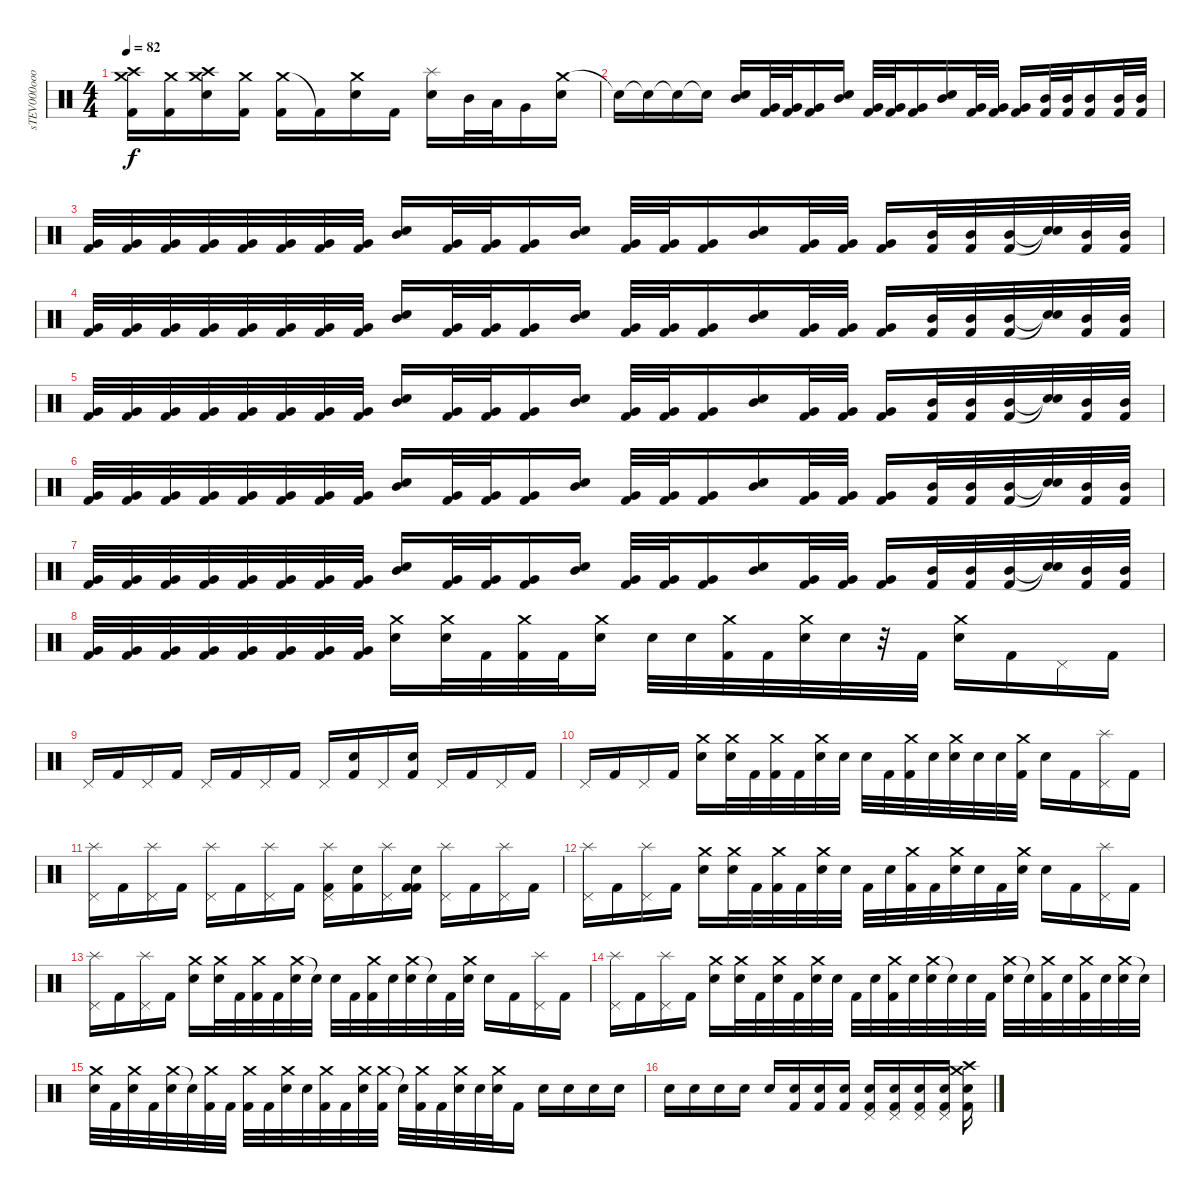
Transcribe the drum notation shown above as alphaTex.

\track ("sTEV000oooooooooOOOO 32" "sTEV000ooo") {instrument percussion}
\staff {score}
\articulation defaults
\ts (4 4)
\tempo 82
\clef neutral
\ks c
("Crash medium (hit)" "Crash high (hit)" "Kick (hit) 2").16{dy f} ("Crash medium (hit)" "Kick (hit) 2").16 ("Crash medium (hit)" "Crash high (hit)" "Electric Snare (hit)").16 ("Crash medium (hit)" "Kick (hit) 2").16 ("Crash medium (hit)" "Kick (hit) 2").16 "Kick (hit) 2"{t}.16 ("Crash medium (hit)" "Electric Snare (hit)").16 "Kick (hit) 2".16 ("Splash (hit)" "Electric Snare (hit)").16 "Mid Tom (hit)".32 "Low Tom (hit)".32 "Very Low Tom (hit)".16 ("Crash medium (hit)" "Electric Snare (hit)").16 |
"Snare (hit)"{t}.16 "Snare (hit)"{t}.16 "Snare (hit)"{t}.16 "Snare (hit)"{t}.16 ("Electric Snare (hit)" "Mid Tom (hit)").16 ("Kick (hit) 2" "Very Low Tom (hit)").32 ("Kick (hit) 2" "Very Low Tom (hit)").32 ("Kick (hit) 2" "Very Low Tom (hit)").16 ("Electric Snare (hit)" "Mid Tom (hit)").16 ("Kick (hit) 2" "Very Low Tom (hit)").32 ("Kick (hit) 2" "Very Low Tom (hit)").32 ("Kick (hit) 2" "Very Low Tom (hit)").16 ("Electric Snare (hit)" "Mid Tom (hit)").16 ("Kick (hit) 2" "Very Low Tom (hit)").32 ("Kick (hit) 2" "Very Low Tom (hit)").32 ("Kick (hit) 2" "Very Low Tom (hit)").16 ("Kick (hit) 2" "Mid Tom (hit)").32 ("Kick (hit) 2" "Mid Tom (hit)").32 ("Kick (hit) 2" "Mid Tom (hit)").16 ("Kick (hit) 2" "Mid Tom (hit)").32 ("Kick (hit) 2" "Mid Tom (hit)").32 |
("Kick (hit) 2" "Very Low Tom (hit)").32 ("Kick (hit) 2" "Very Low Tom (hit)").32 ("Kick (hit) 2" "Very Low Tom (hit)").32 ("Kick (hit) 2" "Very Low Tom (hit)").32 ("Kick (hit) 2" "Very Low Tom (hit)").32 ("Kick (hit) 2" "Very Low Tom (hit)").32 ("Kick (hit) 2" "Very Low Tom (hit)").32 ("Kick (hit) 2" "Very Low Tom (hit)").32 ("Electric Snare (hit)" "Mid Tom (hit)").16 ("Kick (hit) 2" "Very Low Tom (hit)").32 ("Kick (hit) 2" "Very Low Tom (hit)").32 ("Kick (hit) 2" "Very Low Tom (hit)").16 ("Electric Snare (hit)" "Mid Tom (hit)").16 ("Kick (hit) 2" "Very Low Tom (hit)").32 ("Kick (hit) 2" "Very Low Tom (hit)").32 ("Kick (hit) 2" "Very Low Tom (hit)").16 ("Electric Snare (hit)" "Mid Tom (hit)").16 ("Kick (hit) 2" "Very Low Tom (hit)").32 ("Kick (hit) 2" "Very Low Tom (hit)").32 ("Kick (hit) 2" "Very Low Tom (hit)").16 ("Kick (hit) 2" "Mid Tom (hit)").32 ("Kick (hit) 2" "Mid Tom (hit)").32 ("Kick (hit) 2" "Mid Tom (hit)").32 ("Snare (hit)"{t} "Snare (hit)"{t}).32 ("Kick (hit) 2" "Mid Tom (hit)").32 ("Kick (hit) 2" "Mid Tom (hit)").32 |
("Kick (hit) 2" "Very Low Tom (hit)").32 ("Kick (hit) 2" "Very Low Tom (hit)").32 ("Kick (hit) 2" "Very Low Tom (hit)").32 ("Kick (hit) 2" "Very Low Tom (hit)").32 ("Kick (hit) 2" "Very Low Tom (hit)").32 ("Kick (hit) 2" "Very Low Tom (hit)").32 ("Kick (hit) 2" "Very Low Tom (hit)").32 ("Kick (hit) 2" "Very Low Tom (hit)").32 ("Electric Snare (hit)" "Mid Tom (hit)").16 ("Kick (hit) 2" "Very Low Tom (hit)").32 ("Kick (hit) 2" "Very Low Tom (hit)").32 ("Kick (hit) 2" "Very Low Tom (hit)").16 ("Electric Snare (hit)" "Mid Tom (hit)").16 ("Kick (hit) 2" "Very Low Tom (hit)").32 ("Kick (hit) 2" "Very Low Tom (hit)").32 ("Kick (hit) 2" "Very Low Tom (hit)").16 ("Electric Snare (hit)" "Mid Tom (hit)").16 ("Kick (hit) 2" "Very Low Tom (hit)").32 ("Kick (hit) 2" "Very Low Tom (hit)").32 ("Kick (hit) 2" "Very Low Tom (hit)").16 ("Kick (hit) 2" "Mid Tom (hit)").32 ("Kick (hit) 2" "Mid Tom (hit)").32 ("Kick (hit) 2" "Mid Tom (hit)").32 ("Snare (hit)"{t} "Snare (hit)"{t}).32 ("Kick (hit) 2" "Mid Tom (hit)").32 ("Kick (hit) 2" "Mid Tom (hit)").32 |
("Kick (hit) 2" "Very Low Tom (hit)").32 ("Kick (hit) 2" "Very Low Tom (hit)").32 ("Kick (hit) 2" "Very Low Tom (hit)").32 ("Kick (hit) 2" "Very Low Tom (hit)").32 ("Kick (hit) 2" "Very Low Tom (hit)").32 ("Kick (hit) 2" "Very Low Tom (hit)").32 ("Kick (hit) 2" "Very Low Tom (hit)").32 ("Kick (hit) 2" "Very Low Tom (hit)").32 ("Electric Snare (hit)" "Mid Tom (hit)").16 ("Kick (hit) 2" "Very Low Tom (hit)").32 ("Kick (hit) 2" "Very Low Tom (hit)").32 ("Kick (hit) 2" "Very Low Tom (hit)").16 ("Electric Snare (hit)" "Mid Tom (hit)").16 ("Kick (hit) 2" "Very Low Tom (hit)").32 ("Kick (hit) 2" "Very Low Tom (hit)").32 ("Kick (hit) 2" "Very Low Tom (hit)").16 ("Electric Snare (hit)" "Mid Tom (hit)").16 ("Kick (hit) 2" "Very Low Tom (hit)").32 ("Kick (hit) 2" "Very Low Tom (hit)").32 ("Kick (hit) 2" "Very Low Tom (hit)").16 ("Kick (hit) 2" "Mid Tom (hit)").32 ("Kick (hit) 2" "Mid Tom (hit)").32 ("Kick (hit) 2" "Mid Tom (hit)").32 ("Snare (hit)"{t} "Snare (hit)"{t}).32 ("Kick (hit) 2" "Mid Tom (hit)").32 ("Kick (hit) 2" "Mid Tom (hit)").32 |
("Kick (hit) 2" "Very Low Tom (hit)").32 ("Kick (hit) 2" "Very Low Tom (hit)").32 ("Kick (hit) 2" "Very Low Tom (hit)").32 ("Kick (hit) 2" "Very Low Tom (hit)").32 ("Kick (hit) 2" "Very Low Tom (hit)").32 ("Kick (hit) 2" "Very Low Tom (hit)").32 ("Kick (hit) 2" "Very Low Tom (hit)").32 ("Kick (hit) 2" "Very Low Tom (hit)").32 ("Electric Snare (hit)" "Mid Tom (hit)").16 ("Kick (hit) 2" "Very Low Tom (hit)").32 ("Kick (hit) 2" "Very Low Tom (hit)").32 ("Kick (hit) 2" "Very Low Tom (hit)").16 ("Electric Snare (hit)" "Mid Tom (hit)").16 ("Kick (hit) 2" "Very Low Tom (hit)").32 ("Kick (hit) 2" "Very Low Tom (hit)").32 ("Kick (hit) 2" "Very Low Tom (hit)").16 ("Electric Snare (hit)" "Mid Tom (hit)").16 ("Kick (hit) 2" "Very Low Tom (hit)").32 ("Kick (hit) 2" "Very Low Tom (hit)").32 ("Kick (hit) 2" "Very Low Tom (hit)").16 ("Kick (hit) 2" "Mid Tom (hit)").32 ("Kick (hit) 2" "Mid Tom (hit)").32 ("Kick (hit) 2" "Mid Tom (hit)").32 ("Snare (hit)"{t} "Snare (hit)"{t}).32 ("Kick (hit) 2" "Mid Tom (hit)").32 ("Kick (hit) 2" "Mid Tom (hit)").32 |
("Kick (hit) 2" "Very Low Tom (hit)").32 ("Kick (hit) 2" "Very Low Tom (hit)").32 ("Kick (hit) 2" "Very Low Tom (hit)").32 ("Kick (hit) 2" "Very Low Tom (hit)").32 ("Kick (hit) 2" "Very Low Tom (hit)").32 ("Kick (hit) 2" "Very Low Tom (hit)").32 ("Kick (hit) 2" "Very Low Tom (hit)").32 ("Kick (hit) 2" "Very Low Tom (hit)").32 ("Electric Snare (hit)" "Mid Tom (hit)").16 ("Kick (hit) 2" "Very Low Tom (hit)").32 ("Kick (hit) 2" "Very Low Tom (hit)").32 ("Kick (hit) 2" "Very Low Tom (hit)").16 ("Electric Snare (hit)" "Mid Tom (hit)").16 ("Kick (hit) 2" "Very Low Tom (hit)").32 ("Kick (hit) 2" "Very Low Tom (hit)").32 ("Kick (hit) 2" "Very Low Tom (hit)").16 ("Electric Snare (hit)" "Mid Tom (hit)").16 ("Kick (hit) 2" "Very Low Tom (hit)").32 ("Kick (hit) 2" "Very Low Tom (hit)").32 ("Kick (hit) 2" "Very Low Tom (hit)").16 ("Kick (hit) 2" "Mid Tom (hit)").32 ("Kick (hit) 2" "Mid Tom (hit)").32 ("Kick (hit) 2" "Mid Tom (hit)").32 ("Snare (hit)"{t} "Snare (hit)"{t}).32 ("Kick (hit) 2" "Mid Tom (hit)").32 ("Kick (hit) 2" "Mid Tom (hit)").32 |
("Kick (hit) 2" "Very Low Tom (hit)").32 ("Kick (hit) 2" "Very Low Tom (hit)").32 ("Kick (hit) 2" "Very Low Tom (hit)").32 ("Kick (hit) 2" "Very Low Tom (hit)").32 ("Kick (hit) 2" "Very Low Tom (hit)").32 ("Kick (hit) 2" "Very Low Tom (hit)").32 ("Kick (hit) 2" "Very Low Tom (hit)").32 ("Kick (hit) 2" "Very Low Tom (hit)").32 ("Crash medium (hit)" "Electric Snare (hit)").16 ("Crash medium (hit)" "Electric Snare (hit)").32 "Kick (hit) 2".32 ("Crash medium (hit)" "Kick (hit) 2").32 "Kick (hit) 2".32 ("Crash medium (hit)" "Electric Snare (hit)").16 "Electric Snare (hit)".32 "Electric Snare (hit)".32 ("Crash medium (hit)" "Kick (hit) 2").32 "Kick (hit) 2".32 ("Crash medium (hit)" "Electric Snare (hit)").32 "Electric Snare (hit)".32 r.32 "Kick (hit) 2".32 ("Crash medium (hit)" "Electric Snare (hit)").16 "Kick (hit) 2".16 "Pedal Hi-Hat (hit)".16 "Kick (hit) 2".16 |
"Pedal Hi-Hat (hit)".16 "Kick (hit) 2".16 "Pedal Hi-Hat (hit)".16 "Kick (hit) 2".16 "Pedal Hi-Hat (hit)".16 "Kick (hit) 2".16 "Pedal Hi-Hat (hit)".16 "Kick (hit) 2".16 "Pedal Hi-Hat (hit)".16 ("Electric Snare (hit)" "Kick (hit) 2").16 "Pedal Hi-Hat (hit)".16 ("Electric Snare (hit)" "Kick (hit) 2").16 "Pedal Hi-Hat (hit)".16 "Kick (hit) 2".16 "Pedal Hi-Hat (hit)".16 "Kick (hit) 2".16 |
"Pedal Hi-Hat (hit)".16 "Kick (hit) 2".16 "Pedal Hi-Hat (hit)".16 "Kick (hit) 2".16 ("Crash medium (hit)" "Electric Snare (hit)").16 ("Crash medium (hit)" "Electric Snare (hit)").32 "Kick (hit) 2".32 ("Crash medium (hit)" "Kick (hit) 2").32 "Kick (hit) 2".32 ("Crash medium (hit)" "Electric Snare (hit)").32 "Electric Snare (hit)".32 "Electric Snare (hit)".32 "Kick (hit) 2".32 ("Crash medium (hit)" "Kick (hit) 2").32 "Electric Snare (hit)".32 ("Crash medium (hit)" "Electric Snare (hit)").32 "Electric Snare (hit)".32 "Electric Snare (hit)".32 ("Crash medium (hit)" "Kick (hit) 2").32 "Electric Snare (hit)".16 "Kick (hit) 2".16 ("Splash (hit)" "Pedal Hi-Hat (hit)").16 "Kick (hit) 2".16 |
("Splash (hit)" "Pedal Hi-Hat (hit)").16 "Kick (hit) 2".16 ("Splash (hit)" "Pedal Hi-Hat (hit)").16 "Kick (hit) 2".16 ("Splash (hit)" "Pedal Hi-Hat (hit)").16 "Kick (hit) 2".16 ("Splash (hit)" "Pedal Hi-Hat (hit)").16 "Kick (hit) 2".16 ("Kick (hit) 2" "Splash (hit)" "Pedal Hi-Hat (hit)").16 ("Electric Snare (hit)" "Kick (hit) 2").16 ("Splash (hit)" "Pedal Hi-Hat (hit)").16 ("Kick (hit) 2" "Electric Snare (hit)" "Kick (hit) 2").16 ("Splash (hit)" "Pedal Hi-Hat (hit)").16 "Kick (hit) 2".16 ("Splash (hit)" "Pedal Hi-Hat (hit)").16 "Kick (hit) 2".16 |
("Splash (hit)" "Pedal Hi-Hat (hit)").16 "Kick (hit) 2".16 ("Splash (hit)" "Pedal Hi-Hat (hit)").16 "Kick (hit) 2".16 ("Crash medium (hit)" "Electric Snare (hit)").16 ("Crash medium (hit)" "Electric Snare (hit)").32 "Kick (hit) 2".32 ("Crash medium (hit)" "Kick (hit) 2").32 "Kick (hit) 2".32 ("Crash medium (hit)" "Electric Snare (hit)").32 "Electric Snare (hit)".32 "Kick (hit) 2".32 "Electric Snare (hit)".32 ("Crash medium (hit)" "Kick (hit) 2").32 "Kick (hit) 2".32 ("Crash medium (hit)" "Electric Snare (hit)").32 "Electric Snare (hit)".32 "Kick (hit) 2".32 ("Crash medium (hit)" "Electric Snare (hit)").32 "Electric Snare (hit)".16 "Kick (hit) 2".16 ("Splash (hit)" "Pedal Hi-Hat (hit)").16 "Kick (hit) 2".16 |
("Splash (hit)" "Pedal Hi-Hat (hit)").16 "Kick (hit) 2".16 ("Splash (hit)" "Pedal Hi-Hat (hit)").16 "Kick (hit) 2".16 ("Crash medium (hit)" "Electric Snare (hit)").16 ("Crash medium (hit)" "Electric Snare (hit)").32 "Kick (hit) 2".32 ("Crash medium (hit)" "Kick (hit) 2").32 "Kick (hit) 2".32 ("Crash medium (hit)" "Electric Snare (hit)").32 "Snare (hit)"{t}.32 "Electric Snare (hit)".32 "Kick (hit) 2".32 ("Crash medium (hit)" "Kick (hit) 2").32 "Electric Snare (hit)".32 ("Crash medium (hit)" "Electric Snare (hit)").32 "Snare (hit)"{t}.32 "Kick (hit) 2".32 ("Crash medium (hit)" "Electric Snare (hit)").32 "Electric Snare (hit)".16 "Kick (hit) 2".16 ("Splash (hit)" "Pedal Hi-Hat (hit)").16 "Kick (hit) 2".16 |
("Splash (hit)" "Pedal Hi-Hat (hit)").16 "Kick (hit) 2".16 ("Splash (hit)" "Pedal Hi-Hat (hit)").16 "Kick (hit) 2".16 ("Crash medium (hit)" "Electric Snare (hit)").16 ("Crash medium (hit)" "Electric Snare (hit)").32 "Kick (hit) 2".32 ("Crash medium (hit)" "Electric Snare (hit)").32 "Kick (hit) 2".32 ("Crash medium (hit)" "Electric Snare (hit)").32 "Electric Snare (hit)".32 "Kick (hit) 2".32 "Electric Snare (hit)".32 ("Crash medium (hit)" "Kick (hit) 2").32 "Electric Snare (hit)".32 ("Crash medium (hit)" "Electric Snare (hit)").32 "Snare (hit)"{t}.32 "Electric Snare (hit)".32 "Kick (hit) 2".32 ("Crash medium (hit)" "Electric Snare (hit)").32 "Snare (hit)"{t}.32 ("Crash medium (hit)" "Kick (hit) 2").32 "Electric Snare (hit)".32 ("Crash medium (hit)" "Kick (hit) 2").32 "Electric Snare (hit)".32 ("Crash medium (hit)" "Electric Snare (hit)").32 "Snare (hit)"{t}.32 |
("Crash medium (hit)" "Electric Snare (hit)").32 "Kick (hit) 2".32 ("Crash medium (hit)" "Electric Snare (hit)").32 "Kick (hit) 2".32 ("Crash medium (hit)" "Electric Snare (hit)").32 "Snare (hit)"{t}.32 ("Crash medium (hit)" "Kick (hit) 2").32 "Kick (hit) 2".32 ("Crash medium (hit)" "Kick (hit) 2").32 "Kick (hit) 2".32 ("Crash medium (hit)" "Electric Snare (hit)").32 "Electric Snare (hit)".32 ("Crash medium (hit)" "Kick (hit) 2").32 "Kick (hit) 2".32 ("Crash medium (hit)" "Electric Snare (hit)").32 ("Crash medium (hit)" "Kick (hit) 2").32 "Snare (hit)"{t}.32 ("Crash medium (hit)" "Kick (hit) 2").32 "Kick (hit) 2".32 ("Crash medium (hit)" "Electric Snare (hit)").32 "Electric Snare (hit)".32 ("Crash medium (hit)" "Electric Snare (hit)").32 "Kick (hit) 2".16 "Electric Snare (hit)".16 "Electric Snare (hit)".16 "Electric Snare (hit)".16 "Electric Snare (hit)".16 |
"Electric Snare (hit)".16 "Electric Snare (hit)".16 "Electric Snare (hit)".16 "Electric Snare (hit)".16 "Electric Snare (hit)".16 ("Kick (hit) 2" "Electric Snare (hit)").16 ("Kick (hit) 2" "Electric Snare (hit)").16 ("Kick (hit) 2" "Electric Snare (hit)").16 ("Pedal Hi-Hat (hit)" "Kick (hit) 2" "Electric Snare (hit)").16 ("Pedal Hi-Hat (hit)" "Kick (hit) 2" "Electric Snare (hit)").16 ("Pedal Hi-Hat (hit)" "Kick (hit) 2" "Electric Snare (hit)").16 ("Pedal Hi-Hat (hit)" "Kick (hit) 2" "Electric Snare (hit)").16 ("Crash high (hit)" "Crash medium (hit)" "Kick (hit) 2" "Electric Snare (hit)").16
